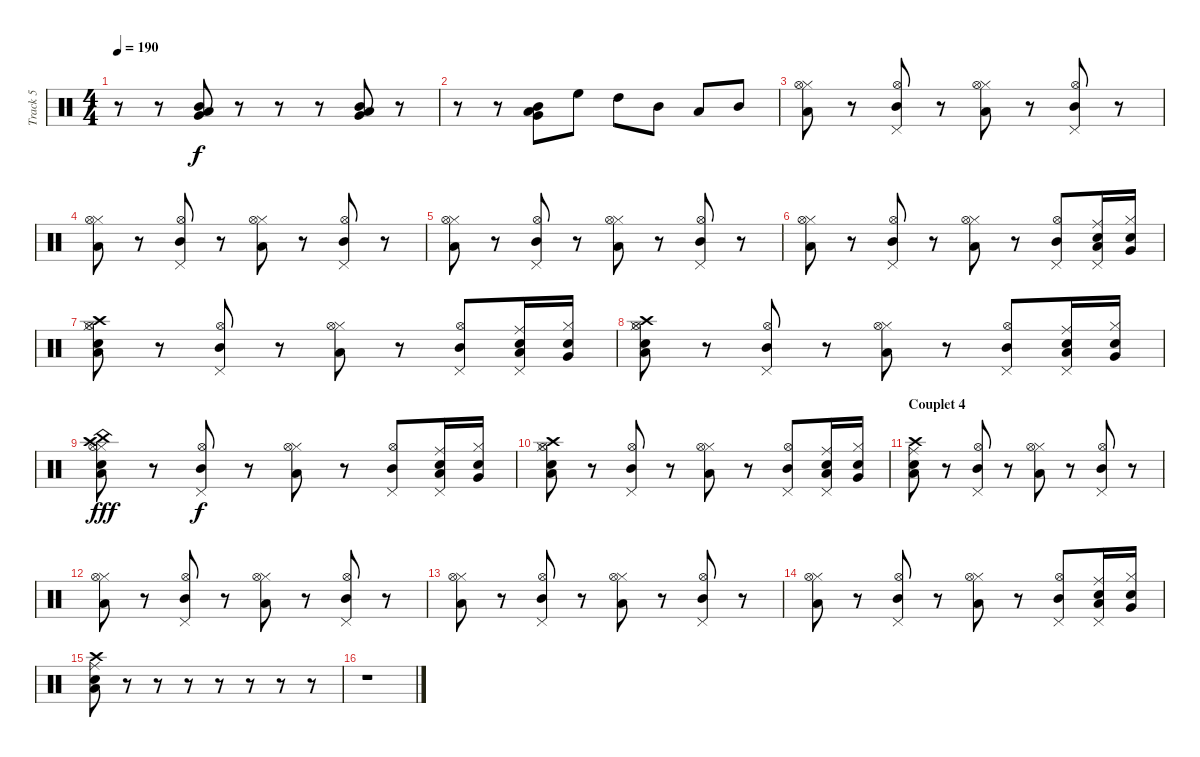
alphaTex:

\track ("Track 5" "Track 5") {instrument percussion}
\staff {score}
\articulation defaults
\ts (4 4)
\tempo 190
\clef neutral
\ks c
r.8{dy f} r.8 ("Low Tom (hit)" "Very Low Tom (hit)" "Mid Tom (hit)").8 r.8 r.8 r.8 ("Mid Tom (hit)" "Low Tom (hit)" "Very Low Tom (hit)").8 r.8 |
r.8 r.8 ("Mid Tom (hit)" "Low Tom (hit)" "Very Low Tom (hit)").8 "High Floor Tom (hit)".8 "High Tom (hit)".8 "Mid Tom (hit)".8 "Low Tom (hit)".8 "Mid Tom (hit)".8 |
("Low Tom (hit)" "Hi-Hat (closed)" "Hi-Hat (open)").8 r.8 ("Mid Tom (hit)" "Pedal Hi-Hat (hit)" "Hi-Hat (open)").8 r.8 ("Low Tom (hit)" "Hi-Hat (closed)" "Hi-Hat (open)").8 r.8 ("Mid Tom (hit)" "Pedal Hi-Hat (hit)" "Hi-Hat (open)").8 r.8 |
("Low Tom (hit)" "Hi-Hat (closed)" "Hi-Hat (open)").8 r.8 ("Mid Tom (hit)" "Pedal Hi-Hat (hit)" "Hi-Hat (open)").8 r.8 ("Low Tom (hit)" "Hi-Hat (closed)" "Hi-Hat (open)").8 r.8 ("Mid Tom (hit)" "Pedal Hi-Hat (hit)" "Hi-Hat (open)").8 r.8 |
("Low Tom (hit)" "Hi-Hat (closed)" "Hi-Hat (open)").8 r.8 ("Mid Tom (hit)" "Pedal Hi-Hat (hit)" "Hi-Hat (open)").8 r.8 ("Low Tom (hit)" "Hi-Hat (closed)" "Hi-Hat (open)").8 r.8 ("Mid Tom (hit)" "Pedal Hi-Hat (hit)" "Hi-Hat (open)").8 r.8 |
("Low Tom (hit)" "Hi-Hat (closed)" "Hi-Hat (open)").8 r.8 ("Mid Tom (hit)" "Pedal Hi-Hat (hit)" "Hi-Hat (open)").8 r.8 ("Low Tom (hit)" "Hi-Hat (closed)" "Hi-Hat (open)").8 r.8 ("Mid Tom (hit)" "Pedal Hi-Hat (hit)" "Hi-Hat (open)").8 ("Low Tom (hit)" "Pedal Hi-Hat (hit)" "Ride (middle)" "Electric Snare (hit)").16 ("Very Low Tom (hit)" "Hi-Hat (closed)" "Snare (hit) 2").16 |
("Low Tom (hit)" "Hi-Hat (closed)" "Hi-Hat (open)" "Crash high (hit)" "Electric Snare (hit)").8 r.8 ("Mid Tom (hit)" "Pedal Hi-Hat (hit)" "Hi-Hat (open)").8 r.8 ("Low Tom (hit)" "Hi-Hat (closed)" "Hi-Hat (open)").8 r.8 ("Mid Tom (hit)" "Pedal Hi-Hat (hit)" "Hi-Hat (open)").8 ("Low Tom (hit)" "Pedal Hi-Hat (hit)" "Ride (middle)" "Electric Snare (hit)").16 ("Very Low Tom (hit)" "Hi-Hat (closed)" "Snare (hit) 2").16 |
("Low Tom (hit)" "Hi-Hat (closed)" "Hi-Hat (open)" "Crash high (hit)" "Electric Snare (hit)").8 r.8 ("Mid Tom (hit)" "Pedal Hi-Hat (hit)" "Hi-Hat (open)").8 r.8 ("Low Tom (hit)" "Hi-Hat (closed)" "Hi-Hat (open)").8 r.8 ("Mid Tom (hit)" "Pedal Hi-Hat (hit)" "Hi-Hat (open)").8 ("Low Tom (hit)" "Pedal Hi-Hat (hit)" "Ride (middle)" "Electric Snare (hit)").16 ("Very Low Tom (hit)" "Hi-Hat (closed)" "Snare (hit) 2").16 |
("Low Tom (hit)" "Hi-Hat (closed)" "Hi-Hat (open)" "Crash high (hit)" "Electric Snare (hit)" "China (hit)").8{dy fff} r.8 ("Mid Tom (hit)" "Pedal Hi-Hat (hit)" "Hi-Hat (open)").8{dy f} r.8 ("Low Tom (hit)" "Hi-Hat (closed)" "Hi-Hat (open)").8 r.8 ("Mid Tom (hit)" "Pedal Hi-Hat (hit)" "Hi-Hat (open)").8 ("Low Tom (hit)" "Pedal Hi-Hat (hit)" "Ride (middle)" "Electric Snare (hit)").16 ("Very Low Tom (hit)" "Hi-Hat (closed)" "Snare (hit) 2").16 |
("Low Tom (hit)" "Hi-Hat (closed)" "Hi-Hat (open)" "Crash high (hit)" "Electric Snare (hit)").8 r.8 ("Mid Tom (hit)" "Pedal Hi-Hat (hit)" "Hi-Hat (open)").8 r.8 ("Low Tom (hit)" "Hi-Hat (closed)" "Hi-Hat (open)").8 r.8 ("Mid Tom (hit)" "Pedal Hi-Hat (hit)" "Hi-Hat (open)").8 ("Low Tom (hit)" "Pedal Hi-Hat (hit)" "Ride (middle)" "Electric Snare (hit)").16 ("Very Low Tom (hit)" "Hi-Hat (closed)" "Snare (hit) 2").16 |
\section ("" "Couplet 4")
("Low Tom (hit)" "Snare (hit) 2" "Crash high (hit)" "Ride (middle)").8 r.8 ("Mid Tom (hit)" "Pedal Hi-Hat (hit)" "Hi-Hat (open)").8 r.8 ("Low Tom (hit)" "Hi-Hat (closed)" "Hi-Hat (open)").8 r.8 ("Mid Tom (hit)" "Pedal Hi-Hat (hit)" "Hi-Hat (open)").8 r.8 |
("Low Tom (hit)" "Hi-Hat (closed)" "Hi-Hat (open)").8 r.8 ("Mid Tom (hit)" "Pedal Hi-Hat (hit)" "Hi-Hat (open)").8 r.8 ("Low Tom (hit)" "Hi-Hat (closed)" "Hi-Hat (open)").8 r.8 ("Mid Tom (hit)" "Pedal Hi-Hat (hit)" "Hi-Hat (open)").8 r.8 |
("Low Tom (hit)" "Hi-Hat (closed)" "Hi-Hat (open)").8 r.8 ("Mid Tom (hit)" "Pedal Hi-Hat (hit)" "Hi-Hat (open)").8 r.8 ("Low Tom (hit)" "Hi-Hat (closed)" "Hi-Hat (open)").8 r.8 ("Mid Tom (hit)" "Pedal Hi-Hat (hit)" "Hi-Hat (open)").8 r.8 |
("Low Tom (hit)" "Hi-Hat (closed)" "Hi-Hat (open)").8 r.8 ("Mid Tom (hit)" "Pedal Hi-Hat (hit)" "Hi-Hat (open)").8 r.8 ("Low Tom (hit)" "Hi-Hat (closed)" "Hi-Hat (open)").8 r.8 ("Mid Tom (hit)" "Pedal Hi-Hat (hit)" "Hi-Hat (open)").8 ("Low Tom (hit)" "Pedal Hi-Hat (hit)" "Ride (middle)" "Electric Snare (hit)").16 ("Very Low Tom (hit)" "Hi-Hat (closed)" "Snare (hit) 2").16 |
("Low Tom (hit)" "Snare (hit) 2" "Crash high (hit)" "Ride (middle)").8 r.8 r.8 r.8 r.8 r.8 r.8 r.8 |
r.1
